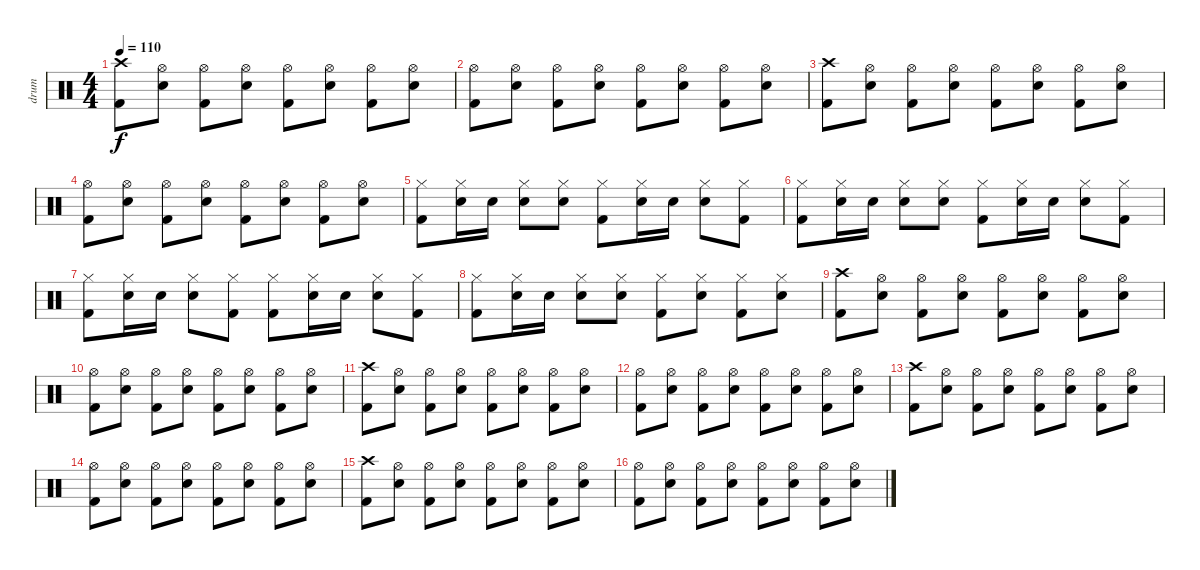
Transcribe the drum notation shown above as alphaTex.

\track ("drum" "drum") {instrument percussion}
\staff {score}
\articulation defaults
\ts (4 4)
\tempo 110
\clef neutral
\ks c
("Crash high (hit)" "Kick (hit) 2").8{dy f} ("Hi-Hat (open)" "Electric Snare (hit)").8 ("Hi-Hat (open)" "Kick (hit) 2").8 ("Hi-Hat (open)" "Electric Snare (hit)").8 ("Hi-Hat (open)" "Kick (hit) 2").8 ("Hi-Hat (open)" "Electric Snare (hit)").8 ("Hi-Hat (open)" "Kick (hit) 2").8 ("Hi-Hat (open)" "Electric Snare (hit)").8 |
("Hi-Hat (open)" "Kick (hit) 2").8 ("Hi-Hat (open)" "Electric Snare (hit)").8 ("Hi-Hat (open)" "Kick (hit) 2").8 ("Hi-Hat (open)" "Electric Snare (hit)").8 ("Hi-Hat (open)" "Kick (hit) 2").8 ("Hi-Hat (open)" "Electric Snare (hit)").8 ("Hi-Hat (open)" "Kick (hit) 2").8 ("Hi-Hat (open)" "Electric Snare (hit)").8 |
("Crash high (hit)" "Kick (hit) 2").8 ("Hi-Hat (open)" "Electric Snare (hit)").8 ("Hi-Hat (open)" "Kick (hit) 2").8 ("Hi-Hat (open)" "Electric Snare (hit)").8 ("Hi-Hat (open)" "Kick (hit) 2").8 ("Hi-Hat (open)" "Electric Snare (hit)").8 ("Hi-Hat (open)" "Kick (hit) 2").8 ("Hi-Hat (open)" "Electric Snare (hit)").8 |
("Hi-Hat (open)" "Kick (hit) 2").8 ("Hi-Hat (open)" "Electric Snare (hit)").8 ("Hi-Hat (open)" "Kick (hit) 2").8 ("Hi-Hat (open)" "Electric Snare (hit)").8 ("Hi-Hat (open)" "Kick (hit) 2").8 ("Hi-Hat (open)" "Electric Snare (hit)").8 ("Hi-Hat (open)" "Kick (hit) 2").8 ("Hi-Hat (open)" "Electric Snare (hit)").8 |
("Hi-Hat (closed)" "Kick (hit) 2").8 ("Hi-Hat (closed)" "Electric Snare (hit)").16 "Electric Snare (hit)".16 ("Hi-Hat (closed)" "Electric Snare (hit)").8 ("Hi-Hat (closed)" "Electric Snare (hit)").8 ("Hi-Hat (closed)" "Kick (hit) 2").8 ("Hi-Hat (closed)" "Electric Snare (hit)").16 "Electric Snare (hit)".16 ("Hi-Hat (closed)" "Electric Snare (hit)").8 ("Hi-Hat (closed)" "Kick (hit) 2").8 |
("Hi-Hat (closed)" "Kick (hit) 2").8 ("Hi-Hat (closed)" "Electric Snare (hit)").16 "Electric Snare (hit)".16 ("Hi-Hat (closed)" "Electric Snare (hit)").8 ("Hi-Hat (closed)" "Electric Snare (hit)").8 ("Hi-Hat (closed)" "Kick (hit) 2").8 ("Hi-Hat (closed)" "Electric Snare (hit)").16 "Electric Snare (hit)".16 ("Hi-Hat (closed)" "Electric Snare (hit)").8 ("Hi-Hat (closed)" "Kick (hit) 2").8 |
("Hi-Hat (closed)" "Kick (hit) 2").8 ("Hi-Hat (closed)" "Electric Snare (hit)").16 "Electric Snare (hit)".16 ("Hi-Hat (closed)" "Electric Snare (hit)").8 ("Hi-Hat (closed)" "Kick (hit) 2").8 ("Hi-Hat (closed)" "Kick (hit) 2").8 ("Hi-Hat (closed)" "Electric Snare (hit)").16 "Electric Snare (hit)".16 ("Hi-Hat (closed)" "Electric Snare (hit)").8 ("Hi-Hat (closed)" "Kick (hit) 2").8 |
("Hi-Hat (closed)" "Kick (hit) 2").8 ("Hi-Hat (closed)" "Electric Snare (hit)").16 "Electric Snare (hit)".16 ("Hi-Hat (closed)" "Electric Snare (hit)").8 ("Hi-Hat (closed)" "Electric Snare (hit)").8 ("Hi-Hat (closed)" "Kick (hit) 2").8 ("Hi-Hat (closed)" "Electric Snare (hit)").8 ("Hi-Hat (closed)" "Kick (hit) 2").8 ("Hi-Hat (closed)" "Electric Snare (hit)").8 |
("Crash high (hit)" "Kick (hit) 2").8 ("Hi-Hat (open)" "Electric Snare (hit)").8 ("Hi-Hat (open)" "Kick (hit) 2").8 ("Hi-Hat (open)" "Electric Snare (hit)").8 ("Hi-Hat (open)" "Kick (hit) 2").8 ("Hi-Hat (open)" "Electric Snare (hit)").8 ("Hi-Hat (open)" "Kick (hit) 2").8 ("Hi-Hat (open)" "Electric Snare (hit)").8 |
("Hi-Hat (open)" "Kick (hit) 2").8 ("Hi-Hat (open)" "Electric Snare (hit)").8 ("Hi-Hat (open)" "Kick (hit) 2").8 ("Hi-Hat (open)" "Electric Snare (hit)").8 ("Hi-Hat (open)" "Kick (hit) 2").8 ("Hi-Hat (open)" "Electric Snare (hit)").8 ("Hi-Hat (open)" "Kick (hit) 2").8 ("Hi-Hat (open)" "Electric Snare (hit)").8 |
("Crash high (hit)" "Kick (hit) 2").8 ("Hi-Hat (open)" "Electric Snare (hit)").8 ("Hi-Hat (open)" "Kick (hit) 2").8 ("Hi-Hat (open)" "Electric Snare (hit)").8 ("Hi-Hat (open)" "Kick (hit) 2").8 ("Hi-Hat (open)" "Electric Snare (hit)").8 ("Hi-Hat (open)" "Kick (hit) 2").8 ("Hi-Hat (open)" "Electric Snare (hit)").8 |
("Hi-Hat (open)" "Kick (hit) 2").8 ("Hi-Hat (open)" "Electric Snare (hit)").8 ("Hi-Hat (open)" "Kick (hit) 2").8 ("Hi-Hat (open)" "Electric Snare (hit)").8 ("Hi-Hat (open)" "Kick (hit) 2").8 ("Hi-Hat (open)" "Electric Snare (hit)").8 ("Hi-Hat (open)" "Kick (hit) 2").8 ("Hi-Hat (open)" "Electric Snare (hit)").8 |
("Crash high (hit)" "Kick (hit) 2").8 ("Hi-Hat (open)" "Electric Snare (hit)").8 ("Hi-Hat (open)" "Kick (hit) 2").8 ("Hi-Hat (open)" "Electric Snare (hit)").8 ("Hi-Hat (open)" "Kick (hit) 2").8 ("Hi-Hat (open)" "Electric Snare (hit)").8 ("Hi-Hat (open)" "Kick (hit) 2").8 ("Hi-Hat (open)" "Electric Snare (hit)").8 |
("Hi-Hat (open)" "Kick (hit) 2").8 ("Hi-Hat (open)" "Electric Snare (hit)").8 ("Hi-Hat (open)" "Kick (hit) 2").8 ("Hi-Hat (open)" "Electric Snare (hit)").8 ("Hi-Hat (open)" "Kick (hit) 2").8 ("Hi-Hat (open)" "Electric Snare (hit)").8 ("Hi-Hat (open)" "Kick (hit) 2").8 ("Hi-Hat (open)" "Electric Snare (hit)").8 |
("Crash high (hit)" "Kick (hit) 2").8 ("Hi-Hat (open)" "Electric Snare (hit)").8 ("Hi-Hat (open)" "Kick (hit) 2").8 ("Hi-Hat (open)" "Electric Snare (hit)").8 ("Hi-Hat (open)" "Kick (hit) 2").8 ("Hi-Hat (open)" "Electric Snare (hit)").8 ("Hi-Hat (open)" "Kick (hit) 2").8 ("Hi-Hat (open)" "Electric Snare (hit)").8 |
("Hi-Hat (open)" "Kick (hit) 2").8 ("Hi-Hat (open)" "Electric Snare (hit)").8 ("Hi-Hat (open)" "Kick (hit) 2").8 ("Hi-Hat (open)" "Electric Snare (hit)").8 ("Hi-Hat (open)" "Kick (hit) 2").8 ("Hi-Hat (open)" "Electric Snare (hit)").8 ("Hi-Hat (open)" "Kick (hit) 2").8 ("Hi-Hat (open)" "Electric Snare (hit)").8
